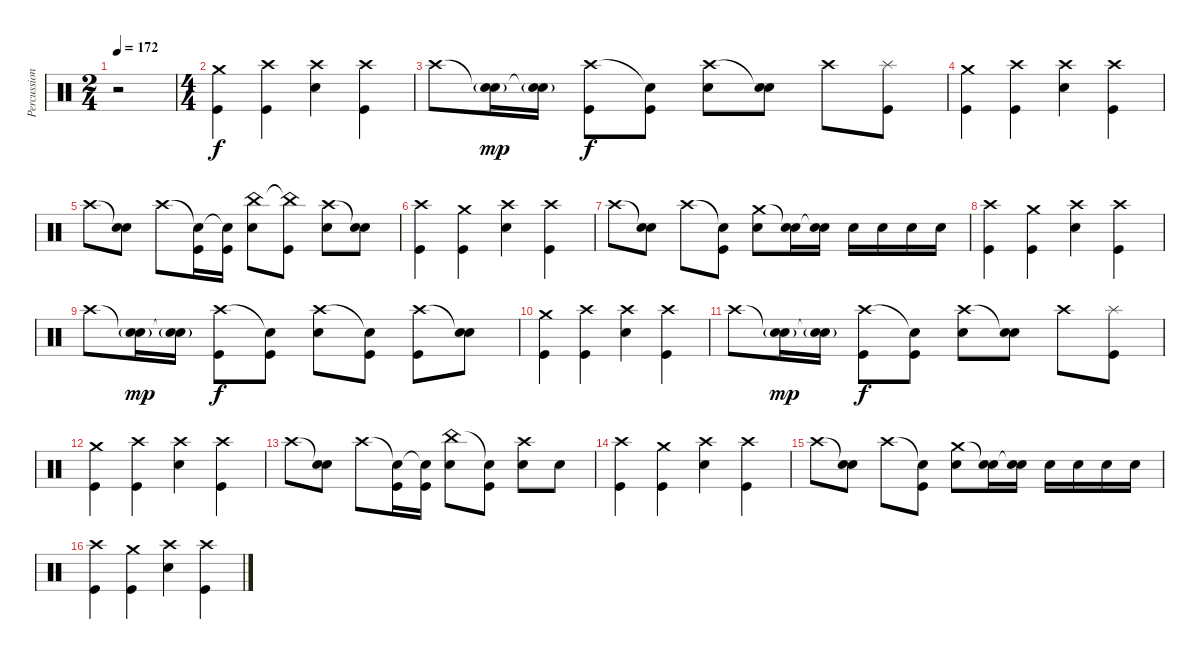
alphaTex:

\track ("Percussion" "Percussion") {instrument percussion}
\staff {score}
\articulation defaults
\ts (2 4)
\tempo 172
\clef neutral
\ks c
r.2{dy f} |
\ts (4 4)
("Crash medium (hit)" "Kick (hit)").4 ("Crash high (hit)" "Kick (hit)").4 ("Crash high (hit)" "Electric Snare (hit)").4 ("Crash high (hit)" "Kick (hit)").4 |
"Crash high (hit)".8 ("Snare (hit)"{t} "Electric Snare (hit)"{g}).16{dy mp} ("Snare (hit)"{t} "Electric Snare (hit)"{g}).16 ("Crash high (hit)" "Kick (hit)").8{dy f} ("Snare (hit)"{t} "Kick (hit)").8 ("Crash high (hit)" "Electric Snare (hit)").8 ("Snare (hit)"{t} "Electric Snare (hit)").8 "Crash high (hit)".8 ("Splash (hit)" "Kick (hit)").8 |
("Crash medium (hit)" "Kick (hit)").4 ("Crash high (hit)" "Kick (hit)").4 ("Crash high (hit)" "Electric Snare (hit)").4 ("Crash high (hit)" "Kick (hit)").4 |
"Crash high (hit)".8 ("Snare (hit)"{t} "Electric Snare (hit)").8 "Crash high (hit)".8 ("Snare (hit)"{t} "Kick (hit)").16 ("Snare (hit)"{t} "Kick (hit)").16 ("China (hit)" "Electric Snare (hit)").8 ("China (hit)"{t} "Kick (hit)").8 ("Crash high (hit)" "Electric Snare (hit)").8 ("Snare (hit)"{t} "Electric Snare (hit)").8 |
("Crash high (hit)" "Kick (hit)").4 ("Crash medium (hit)" "Kick (hit)").4 ("Crash high (hit)" "Electric Snare (hit)").4 ("Crash high (hit)" "Kick (hit)").4 |
"Crash high (hit)".8 ("Snare (hit)"{t} "Electric Snare (hit)").8 "Crash high (hit)".8 ("Snare (hit)"{t} "Kick (hit)").8 ("Crash medium (hit)" "Electric Snare (hit)").8 ("Snare (hit)"{t} "Electric Snare (hit)").16 ("Snare (hit)"{t} "Electric Snare (hit)").16 "Electric Snare (hit)".16 "Electric Snare (hit)".16 "Electric Snare (hit)".16 "Electric Snare (hit)".16 |
("Crash high (hit)" "Kick (hit)").4 ("Crash medium (hit)" "Kick (hit)").4 ("Crash high (hit)" "Electric Snare (hit)").4 ("Crash high (hit)" "Kick (hit)").4 |
"Crash high (hit)".8 ("Snare (hit)"{t} "Electric Snare (hit)"{g}).16{dy mp} ("Snare (hit)"{t} "Electric Snare (hit)"{g}).16 ("Crash high (hit)" "Kick (hit)").8{dy f} ("Snare (hit)"{t} "Kick (hit)").8 ("Crash high (hit)" "Electric Snare (hit)").8 ("Snare (hit)"{t} "Kick (hit)").8 ("Crash high (hit)" "Kick (hit)").8 ("Snare (hit)"{t} "Electric Snare (hit)").8 |
("Crash medium (hit)" "Kick (hit)").4 ("Crash high (hit)" "Kick (hit)").4 ("Crash high (hit)" "Electric Snare (hit)").4 ("Crash high (hit)" "Kick (hit)").4 |
"Crash high (hit)".8 ("Snare (hit)"{t} "Electric Snare (hit)"{g}).16{dy mp} ("Snare (hit)"{t} "Electric Snare (hit)"{g}).16 ("Crash high (hit)" "Kick (hit)").8{dy f} ("Snare (hit)"{t} "Kick (hit)").8 ("Crash high (hit)" "Electric Snare (hit)").8 ("Snare (hit)"{t} "Electric Snare (hit)").8 "Crash high (hit)".8 ("Splash (hit)" "Kick (hit)").8 |
("Crash medium (hit)" "Kick (hit)").4 ("Crash high (hit)" "Kick (hit)").4 ("Crash high (hit)" "Electric Snare (hit)").4 ("Crash high (hit)" "Kick (hit)").4 |
"Crash high (hit)".8 ("Snare (hit)"{t} "Electric Snare (hit)").8 "Crash high (hit)".8 ("Snare (hit)"{t} "Kick (hit)").16 ("Snare (hit)"{t} "Kick (hit)").16 ("China (hit)" "Electric Snare (hit)").8 ("Snare (hit)"{t} "Kick (hit)").8 ("Crash high (hit)" "Electric Snare (hit)").8 "Electric Snare (hit)".8 |
("Crash high (hit)" "Kick (hit)").4 ("Crash medium (hit)" "Kick (hit)").4 ("Crash high (hit)" "Electric Snare (hit)").4 ("Crash high (hit)" "Kick (hit)").4 |
"Crash high (hit)".8 ("Snare (hit)"{t} "Electric Snare (hit)").8 "Crash high (hit)".8 ("Snare (hit)"{t} "Kick (hit)").8 ("Crash medium (hit)" "Electric Snare (hit)").8 ("Snare (hit)"{t} "Electric Snare (hit)").16 ("Snare (hit)"{t} "Electric Snare (hit)").16 "Electric Snare (hit)".16 "Electric Snare (hit)".16 "Electric Snare (hit)".16 "Electric Snare (hit)".16 |
("Crash high (hit)" "Kick (hit)").4 ("Crash medium (hit)" "Kick (hit)").4 ("Crash high (hit)" "Electric Snare (hit)").4 ("Crash high (hit)" "Kick (hit)").4
